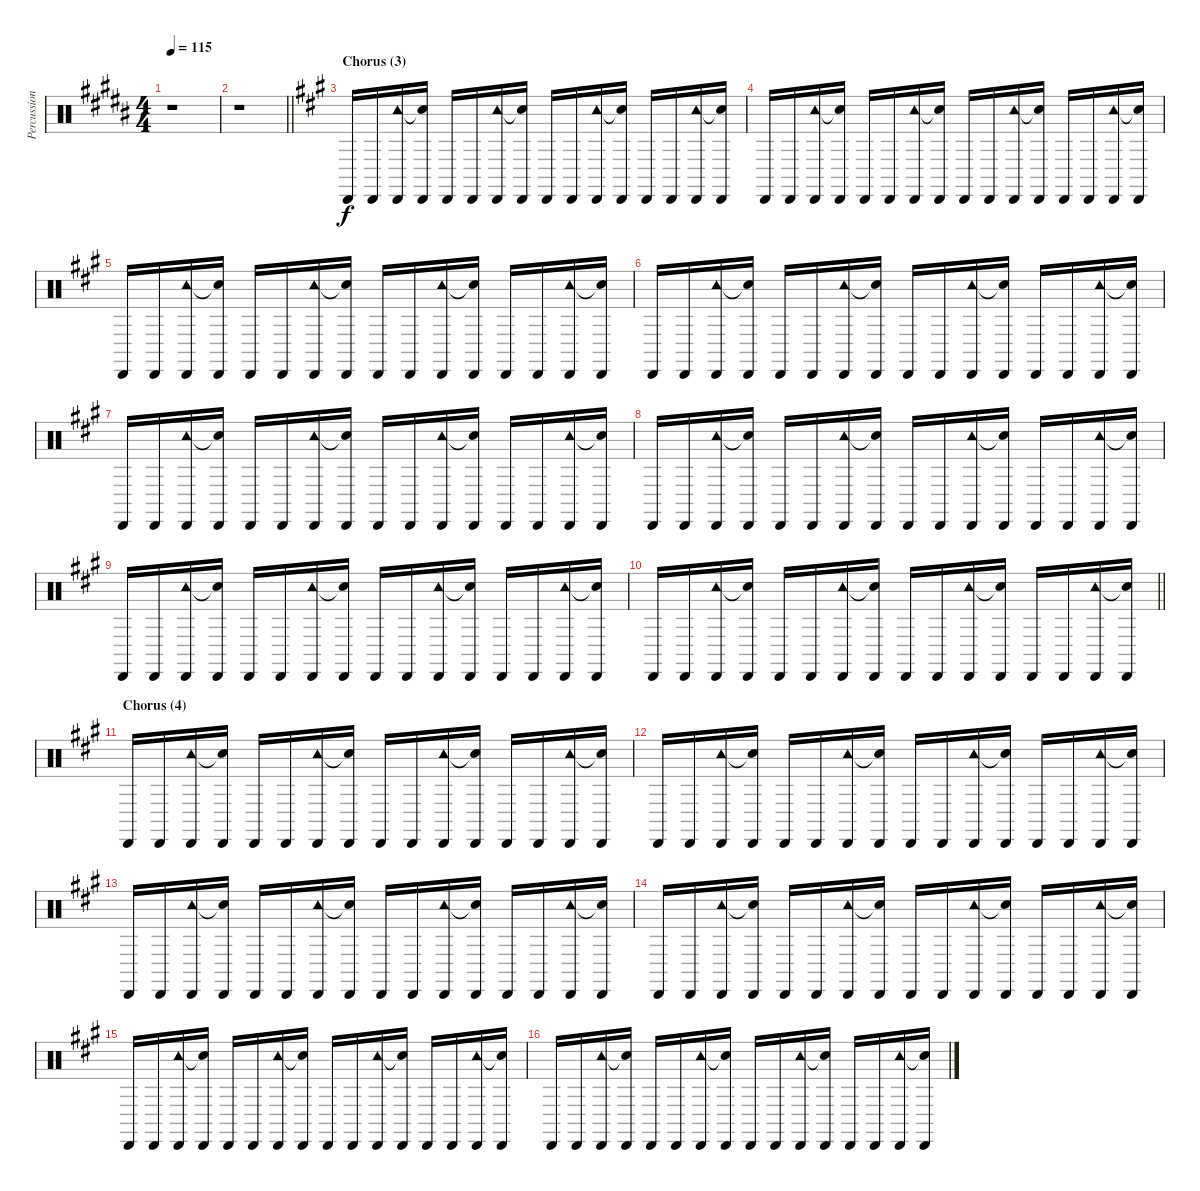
\track ("Percussion" "Percussion") {instrument percussion}
\staff {score}
\articulation defaults
\ts (4 4)
\tempo 115
\clef neutral
\ks b
r.1{dy f} |
\barLineRight lightlight
r.1 |
\section ("" "Chorus (3)")
\ks a "Cabasa (hit)".16 "Cabasa (hit)".16
("Cabasa (hit)" "Tambourine (hit)").16 ("Cabasa (hit)" "Snare (hit)"{t}).16 "Cabasa (hit)".16 "Cabasa (hit)".16 ("Cabasa (hit)" "Tambourine (hit)").16 ("Cabasa (hit)" "Snare (hit)"{t}).16 "Cabasa (hit)".16 "Cabasa (hit)".16 ("Cabasa (hit)" "Tambourine (hit)").16 ("Cabasa (hit)" "Snare (hit)"{t}).16 "Cabasa (hit)".16 "Cabasa (hit)".16 ("Cabasa (hit)" "Tambourine (hit)").16 ("Cabasa (hit)" "Snare (hit)"{t}).16 |
"Cabasa (hit)".16 "Cabasa (hit)".16 ("Cabasa (hit)" "Tambourine (hit)").16 ("Cabasa (hit)" "Snare (hit)"{t}).16 "Cabasa (hit)".16 "Cabasa (hit)".16 ("Cabasa (hit)" "Tambourine (hit)").16 ("Cabasa (hit)" "Snare (hit)"{t}).16 "Cabasa (hit)".16 "Cabasa (hit)".16 ("Cabasa (hit)" "Tambourine (hit)").16 ("Cabasa (hit)" "Snare (hit)"{t}).16 "Cabasa (hit)".16 "Cabasa (hit)".16 ("Cabasa (hit)" "Tambourine (hit)").16 ("Cabasa (hit)" "Snare (hit)"{t}).16 |
"Cabasa (hit)".16 "Cabasa (hit)".16 ("Cabasa (hit)" "Tambourine (hit)").16 ("Cabasa (hit)" "Snare (hit)"{t}).16 "Cabasa (hit)".16 "Cabasa (hit)".16 ("Cabasa (hit)" "Tambourine (hit)").16 ("Cabasa (hit)" "Snare (hit)"{t}).16 "Cabasa (hit)".16 "Cabasa (hit)".16 ("Cabasa (hit)" "Tambourine (hit)").16 ("Cabasa (hit)" "Snare (hit)"{t}).16 "Cabasa (hit)".16 "Cabasa (hit)".16 ("Cabasa (hit)" "Tambourine (hit)").16 ("Cabasa (hit)" "Snare (hit)"{t}).16 |
"Cabasa (hit)".16 "Cabasa (hit)".16 ("Cabasa (hit)" "Tambourine (hit)").16 ("Cabasa (hit)" "Snare (hit)"{t}).16 "Cabasa (hit)".16 "Cabasa (hit)".16 ("Cabasa (hit)" "Tambourine (hit)").16 ("Cabasa (hit)" "Snare (hit)"{t}).16 "Cabasa (hit)".16 "Cabasa (hit)".16 ("Cabasa (hit)" "Tambourine (hit)").16 ("Cabasa (hit)" "Snare (hit)"{t}).16 "Cabasa (hit)".16 "Cabasa (hit)".16 ("Cabasa (hit)" "Tambourine (hit)").16 ("Cabasa (hit)" "Snare (hit)"{t}).16 |
"Cabasa (hit)".16 "Cabasa (hit)".16 ("Cabasa (hit)" "Tambourine (hit)").16 ("Cabasa (hit)" "Snare (hit)"{t}).16 "Cabasa (hit)".16 "Cabasa (hit)".16 ("Cabasa (hit)" "Tambourine (hit)").16 ("Cabasa (hit)" "Snare (hit)"{t}).16 "Cabasa (hit)".16 "Cabasa (hit)".16 ("Cabasa (hit)" "Tambourine (hit)").16 ("Cabasa (hit)" "Snare (hit)"{t}).16 "Cabasa (hit)".16 "Cabasa (hit)".16 ("Cabasa (hit)" "Tambourine (hit)").16 ("Cabasa (hit)" "Snare (hit)"{t}).16 |
"Cabasa (hit)".16 "Cabasa (hit)".16 ("Cabasa (hit)" "Tambourine (hit)").16 ("Cabasa (hit)" "Snare (hit)"{t}).16 "Cabasa (hit)".16 "Cabasa (hit)".16 ("Cabasa (hit)" "Tambourine (hit)").16 ("Cabasa (hit)" "Snare (hit)"{t}).16 "Cabasa (hit)".16 "Cabasa (hit)".16 ("Cabasa (hit)" "Tambourine (hit)").16 ("Cabasa (hit)" "Snare (hit)"{t}).16 "Cabasa (hit)".16 "Cabasa (hit)".16 ("Cabasa (hit)" "Tambourine (hit)").16 ("Cabasa (hit)" "Snare (hit)"{t}).16 |
"Cabasa (hit)".16 "Cabasa (hit)".16 ("Cabasa (hit)" "Tambourine (hit)").16 ("Cabasa (hit)" "Snare (hit)"{t}).16 "Cabasa (hit)".16 "Cabasa (hit)".16 ("Cabasa (hit)" "Tambourine (hit)").16 ("Cabasa (hit)" "Snare (hit)"{t}).16 "Cabasa (hit)".16 "Cabasa (hit)".16 ("Cabasa (hit)" "Tambourine (hit)").16 ("Cabasa (hit)" "Snare (hit)"{t}).16 "Cabasa (hit)".16 "Cabasa (hit)".16 ("Cabasa (hit)" "Tambourine (hit)").16 ("Cabasa (hit)" "Snare (hit)"{t}).16 |
\barLineRight lightlight "Cabasa (hit)".16 "Cabasa (hit)".16
("Cabasa (hit)" "Tambourine (hit)").16 ("Cabasa (hit)" "Snare (hit)"{t}).16 "Cabasa (hit)".16 "Cabasa (hit)".16 ("Cabasa (hit)" "Tambourine (hit)").16 ("Cabasa (hit)" "Snare (hit)"{t}).16 "Cabasa (hit)".16 "Cabasa (hit)".16 ("Cabasa (hit)" "Tambourine (hit)").16 ("Cabasa (hit)" "Snare (hit)"{t}).16 "Cabasa (hit)".16 "Cabasa (hit)".16 ("Cabasa (hit)" "Tambourine (hit)").16 ("Cabasa (hit)" "Snare (hit)"{t}).16 |
\section ("" "Chorus (4)")
"Cabasa (hit)".16 "Cabasa (hit)".16 ("Cabasa (hit)" "Tambourine (hit)").16 ("Cabasa (hit)" "Snare (hit)"{t}).16 "Cabasa (hit)".16 "Cabasa (hit)".16 ("Cabasa (hit)" "Tambourine (hit)").16 ("Cabasa (hit)" "Snare (hit)"{t}).16 "Cabasa (hit)".16 "Cabasa (hit)".16 ("Cabasa (hit)" "Tambourine (hit)").16 ("Cabasa (hit)" "Snare (hit)"{t}).16 "Cabasa (hit)".16 "Cabasa (hit)".16 ("Cabasa (hit)" "Tambourine (hit)").16 ("Cabasa (hit)" "Snare (hit)"{t}).16 |
"Cabasa (hit)".16 "Cabasa (hit)".16 ("Cabasa (hit)" "Tambourine (hit)").16 ("Cabasa (hit)" "Snare (hit)"{t}).16 "Cabasa (hit)".16 "Cabasa (hit)".16 ("Cabasa (hit)" "Tambourine (hit)").16 ("Cabasa (hit)" "Snare (hit)"{t}).16 "Cabasa (hit)".16 "Cabasa (hit)".16 ("Cabasa (hit)" "Tambourine (hit)").16 ("Cabasa (hit)" "Snare (hit)"{t}).16 "Cabasa (hit)".16 "Cabasa (hit)".16 ("Cabasa (hit)" "Tambourine (hit)").16 ("Cabasa (hit)" "Snare (hit)"{t}).16 |
"Cabasa (hit)".16 "Cabasa (hit)".16 ("Cabasa (hit)" "Tambourine (hit)").16 ("Cabasa (hit)" "Snare (hit)"{t}).16 "Cabasa (hit)".16 "Cabasa (hit)".16 ("Cabasa (hit)" "Tambourine (hit)").16 ("Cabasa (hit)" "Snare (hit)"{t}).16 "Cabasa (hit)".16 "Cabasa (hit)".16 ("Cabasa (hit)" "Tambourine (hit)").16 ("Cabasa (hit)" "Snare (hit)"{t}).16 "Cabasa (hit)".16 "Cabasa (hit)".16 ("Cabasa (hit)" "Tambourine (hit)").16 ("Cabasa (hit)" "Snare (hit)"{t}).16 |
"Cabasa (hit)".16 "Cabasa (hit)".16 ("Cabasa (hit)" "Tambourine (hit)").16 ("Cabasa (hit)" "Snare (hit)"{t}).16 "Cabasa (hit)".16 "Cabasa (hit)".16 ("Cabasa (hit)" "Tambourine (hit)").16 ("Cabasa (hit)" "Snare (hit)"{t}).16 "Cabasa (hit)".16 "Cabasa (hit)".16 ("Cabasa (hit)" "Tambourine (hit)").16 ("Cabasa (hit)" "Snare (hit)"{t}).16 "Cabasa (hit)".16 "Cabasa (hit)".16 ("Cabasa (hit)" "Tambourine (hit)").16 ("Cabasa (hit)" "Snare (hit)"{t}).16 |
"Cabasa (hit)".16 "Cabasa (hit)".16 ("Cabasa (hit)" "Tambourine (hit)").16 ("Cabasa (hit)" "Snare (hit)"{t}).16 "Cabasa (hit)".16 "Cabasa (hit)".16 ("Cabasa (hit)" "Tambourine (hit)").16 ("Cabasa (hit)" "Snare (hit)"{t}).16 "Cabasa (hit)".16 "Cabasa (hit)".16 ("Cabasa (hit)" "Tambourine (hit)").16 ("Cabasa (hit)" "Snare (hit)"{t}).16 "Cabasa (hit)".16 "Cabasa (hit)".16 ("Cabasa (hit)" "Tambourine (hit)").16 ("Cabasa (hit)" "Snare (hit)"{t}).16 |
"Cabasa (hit)".16 "Cabasa (hit)".16 ("Cabasa (hit)" "Tambourine (hit)").16 ("Cabasa (hit)" "Snare (hit)"{t}).16 "Cabasa (hit)".16 "Cabasa (hit)".16 ("Cabasa (hit)" "Tambourine (hit)").16 ("Cabasa (hit)" "Snare (hit)"{t}).16 "Cabasa (hit)".16 "Cabasa (hit)".16 ("Cabasa (hit)" "Tambourine (hit)").16 ("Cabasa (hit)" "Snare (hit)"{t}).16 "Cabasa (hit)".16 "Cabasa (hit)".16 ("Cabasa (hit)" "Tambourine (hit)").16 ("Cabasa (hit)" "Snare (hit)"{t}).16
